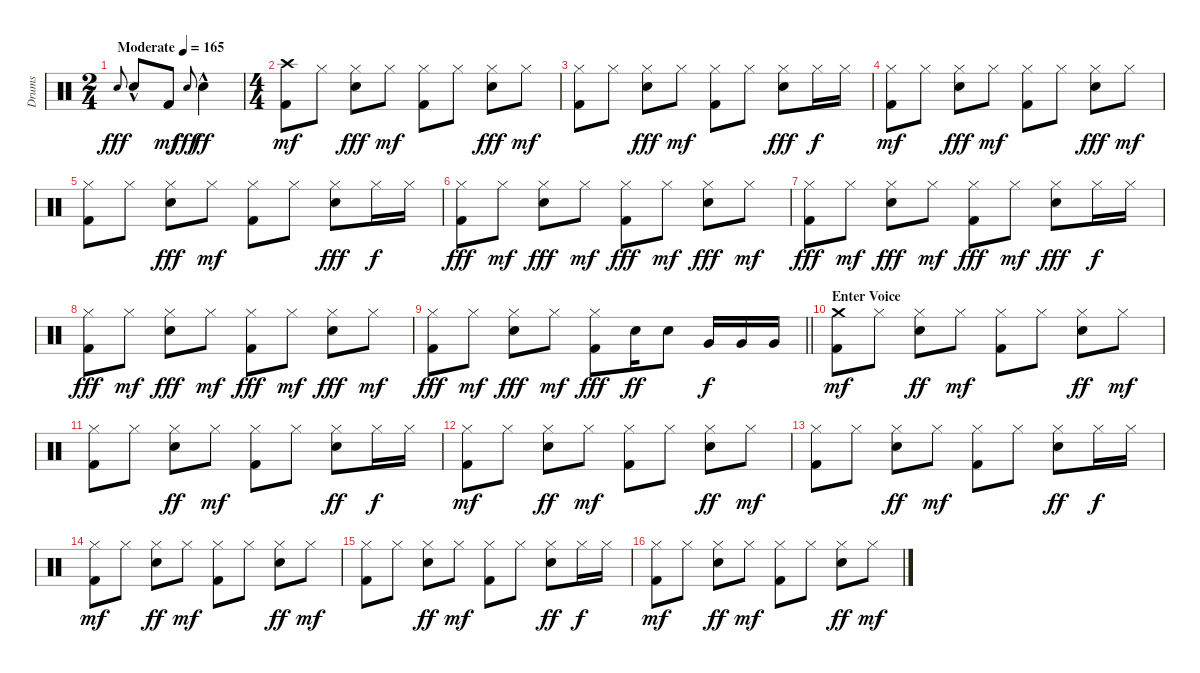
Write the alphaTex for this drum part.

\track ("Drums" "Drums") {instrument percussion}
\staff {score}
\articulation defaults
\ts (2 4)
\tempo (165 "Moderate")
\clef neutral
\ks c "Electric Snare (hit)".8{gr onbeat dy fff} "Electric Snare (hit)"{hac}.8 "Kick (hit) 2".8{dy mf} "Electric Snare (hit)".8{gr onbeat dy fff} "Electric Snare (hit)"{hac}.4{dy ff}
|
\ts (4 4)
("Crash high (hit)" "Kick (hit) 2").8{dy mf} "Hi-Hat (closed)".8 ("Hi-Hat (closed)" "Electric Snare (hit)").8{dy fff} "Hi-Hat (closed)".8{dy mf} ("Hi-Hat (closed)" "Kick (hit) 2").8 "Hi-Hat (closed)".8 ("Hi-Hat (closed)" "Electric Snare (hit)").8{dy fff} "Hi-Hat (closed)".8{dy mf} |
("Hi-Hat (closed)" "Kick (hit) 2").8 "Hi-Hat (closed)".8 ("Hi-Hat (closed)" "Electric Snare (hit)").8{dy fff} "Hi-Hat (closed)".8{dy mf} ("Hi-Hat (closed)" "Kick (hit) 2").8 "Hi-Hat (closed)".8 ("Hi-Hat (closed)" "Electric Snare (hit)").8{dy fff} "Hi-Hat (closed)".16{dy f} "Hi-Hat (closed)".16 |
("Hi-Hat (closed)" "Kick (hit) 2").8{dy mf} "Hi-Hat (closed)".8 ("Hi-Hat (closed)" "Electric Snare (hit)").8{dy fff} "Hi-Hat (closed)".8{dy mf} ("Hi-Hat (closed)" "Kick (hit) 2").8 "Hi-Hat (closed)".8 ("Hi-Hat (closed)" "Electric Snare (hit)").8{dy fff} "Hi-Hat (closed)".8{dy mf} |
("Hi-Hat (closed)" "Kick (hit) 2").8 "Hi-Hat (closed)".8 ("Hi-Hat (closed)" "Electric Snare (hit)").8{dy fff} "Hi-Hat (closed)".8{dy mf} ("Hi-Hat (closed)" "Kick (hit) 2").8 "Hi-Hat (closed)".8 ("Hi-Hat (closed)" "Electric Snare (hit)").8{dy fff} "Hi-Hat (closed)".16{dy f} "Hi-Hat (closed)".16 |
("Hi-Hat (closed)" "Kick (hit) 2").8{dy fff} "Hi-Hat (closed)".8{dy mf} ("Hi-Hat (closed)" "Electric Snare (hit)").8{dy fff} "Hi-Hat (closed)".8{dy mf} ("Hi-Hat (closed)" "Kick (hit) 2").8{dy fff} "Hi-Hat (closed)".8{dy mf} ("Hi-Hat (closed)" "Electric Snare (hit)").8{dy fff} "Hi-Hat (closed)".8{dy mf} |
("Hi-Hat (closed)" "Kick (hit) 2").8{dy fff} "Hi-Hat (closed)".8{dy mf} ("Hi-Hat (closed)" "Electric Snare (hit)").8{dy fff} "Hi-Hat (closed)".8{dy mf} ("Hi-Hat (closed)" "Kick (hit) 2").8{dy fff} "Hi-Hat (closed)".8{dy mf} ("Hi-Hat (closed)" "Electric Snare (hit)").8{dy fff} "Hi-Hat (closed)".16{dy f} "Hi-Hat (closed)".16 |
("Hi-Hat (closed)" "Kick (hit) 2").8{dy fff} "Hi-Hat (closed)".8{dy mf} ("Hi-Hat (closed)" "Electric Snare (hit)").8{dy fff} "Hi-Hat (closed)".8{dy mf} ("Hi-Hat (closed)" "Kick (hit) 2").8{dy fff} "Hi-Hat (closed)".8{dy mf} ("Hi-Hat (closed)" "Electric Snare (hit)").8{dy fff} "Hi-Hat (closed)".8{dy mf} |
\barLineRight lightlight
("Hi-Hat (closed)" "Kick (hit) 2").8{dy fff} "Hi-Hat (closed)".8{dy mf} ("Hi-Hat (closed)" "Electric Snare (hit)").8{dy fff} "Hi-Hat (closed)".8{dy mf} ("Hi-Hat (closed)" "Kick (hit) 2").8{dy fff} "Electric Snare (hit)".16{dy ff} "Electric Snare (hit)".8 "Very Low Tom (hit)".16{dy f} "Very Low Tom (hit)".16 "Very Low Tom (hit)".16 |
\section ("" "Enter Voice")
("Crash medium (hit)" "Kick (hit) 2").8{dy mf} "Hi-Hat (closed)".8 ("Hi-Hat (closed)" "Electric Snare (hit)").8{dy ff} "Hi-Hat (closed)".8{dy mf} ("Hi-Hat (closed)" "Kick (hit) 2").8 "Hi-Hat (closed)".8 ("Hi-Hat (closed)" "Electric Snare (hit)").8{dy ff} "Hi-Hat (closed)".8{dy mf} |
("Hi-Hat (closed)" "Kick (hit) 2").8 "Hi-Hat (closed)".8 ("Hi-Hat (closed)" "Electric Snare (hit)").8{dy ff} "Hi-Hat (closed)".8{dy mf} ("Hi-Hat (closed)" "Kick (hit) 2").8 "Hi-Hat (closed)".8 ("Hi-Hat (closed)" "Electric Snare (hit)").8{dy ff} "Hi-Hat (closed)".16{dy f} "Hi-Hat (closed)".16 |
("Hi-Hat (closed)" "Kick (hit) 2").8{dy mf} "Hi-Hat (closed)".8 ("Hi-Hat (closed)" "Electric Snare (hit)").8{dy ff} "Hi-Hat (closed)".8{dy mf} ("Hi-Hat (closed)" "Kick (hit) 2").8 "Hi-Hat (closed)".8 ("Hi-Hat (closed)" "Electric Snare (hit)").8{dy ff} "Hi-Hat (closed)".8{dy mf} |
("Hi-Hat (closed)" "Kick (hit) 2").8 "Hi-Hat (closed)".8 ("Hi-Hat (closed)" "Electric Snare (hit)").8{dy ff} "Hi-Hat (closed)".8{dy mf} ("Hi-Hat (closed)" "Kick (hit) 2").8 "Hi-Hat (closed)".8 ("Hi-Hat (closed)" "Electric Snare (hit)").8{dy ff} "Hi-Hat (closed)".16{dy f} "Hi-Hat (closed)".16 |
("Hi-Hat (closed)" "Kick (hit) 2").8{dy mf} "Hi-Hat (closed)".8 ("Hi-Hat (closed)" "Electric Snare (hit)").8{dy ff} "Hi-Hat (closed)".8{dy mf} ("Hi-Hat (closed)" "Kick (hit) 2").8 "Hi-Hat (closed)".8 ("Hi-Hat (closed)" "Electric Snare (hit)").8{dy ff} "Hi-Hat (closed)".8{dy mf} |
("Hi-Hat (closed)" "Kick (hit) 2").8 "Hi-Hat (closed)".8 ("Hi-Hat (closed)" "Electric Snare (hit)").8{dy ff} "Hi-Hat (closed)".8{dy mf} ("Hi-Hat (closed)" "Kick (hit) 2").8 "Hi-Hat (closed)".8 ("Hi-Hat (closed)" "Electric Snare (hit)").8{dy ff} "Hi-Hat (closed)".16{dy f} "Hi-Hat (closed)".16 |
("Hi-Hat (closed)" "Kick (hit) 2").8{dy mf} "Hi-Hat (closed)".8 ("Hi-Hat (closed)" "Electric Snare (hit)").8{dy ff} "Hi-Hat (closed)".8{dy mf} ("Hi-Hat (closed)" "Kick (hit) 2").8 "Hi-Hat (closed)".8 ("Hi-Hat (closed)" "Electric Snare (hit)").8{dy ff} "Hi-Hat (closed)".8{dy mf}
